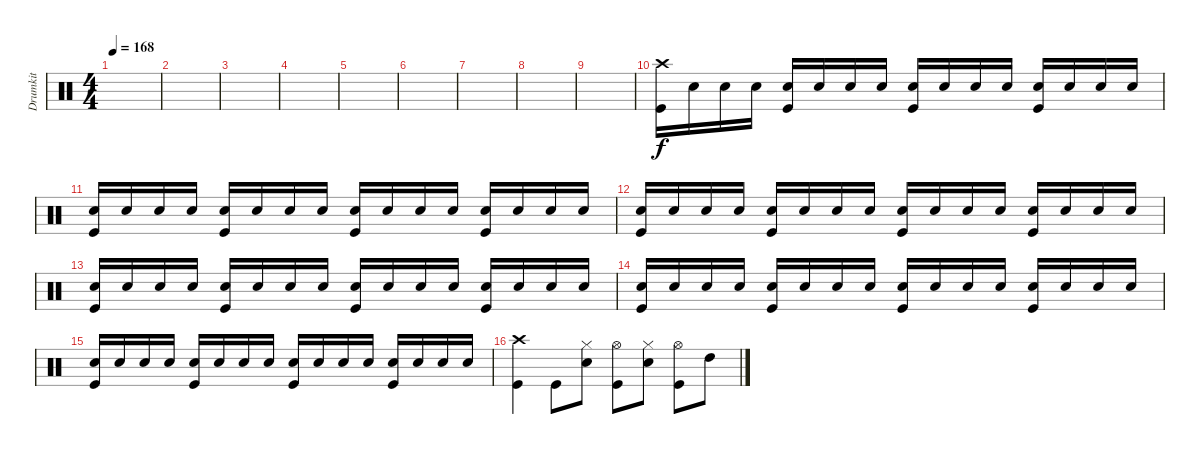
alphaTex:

\track ("Drumkit" "Drumkit") {instrument percussion}
\staff {score}
\articulation defaults
\ts (4 4)
\tempo 168
\clef neutral
\ks c
|
|
|
|
|
|
|
|
|
("Kick (hit)" "Crash high (hit)").16 "Snare (hit) 2".16 "Snare (hit) 2".16 "Snare (hit) 2".16 ("Snare (hit) 2" "Kick (hit)").16 "Snare (hit) 2".16 "Snare (hit) 2".16 "Snare (hit) 2".16 ("Snare (hit) 2" "Kick (hit)").16 "Snare (hit) 2".16 "Snare (hit) 2".16 "Snare (hit) 2".16 ("Snare (hit) 2" "Kick (hit)").16 "Snare (hit) 2".16 "Snare (hit) 2".16 "Snare (hit) 2".16 |
("Snare (hit) 2" "Kick (hit)").16 "Snare (hit) 2".16 "Snare (hit) 2".16 "Snare (hit) 2".16 ("Snare (hit) 2" "Kick (hit)").16 "Snare (hit) 2".16 "Snare (hit) 2".16 "Snare (hit) 2".16 ("Snare (hit) 2" "Kick (hit)").16 "Snare (hit) 2".16 "Snare (hit) 2".16 "Snare (hit) 2".16 ("Snare (hit) 2" "Kick (hit)").16 "Snare (hit) 2".16 "Snare (hit) 2".16 "Snare (hit) 2".16 |
("Snare (hit) 2" "Kick (hit)").16 "Snare (hit) 2".16 "Snare (hit) 2".16 "Snare (hit) 2".16 ("Snare (hit) 2" "Kick (hit)").16 "Snare (hit) 2".16 "Snare (hit) 2".16 "Snare (hit) 2".16 ("Snare (hit) 2" "Kick (hit)").16 "Snare (hit) 2".16 "Snare (hit) 2".16 "Snare (hit) 2".16 ("Snare (hit) 2" "Kick (hit)").16 "Snare (hit) 2".16 "Snare (hit) 2".16 "Snare (hit) 2".16 |
("Snare (hit) 2" "Kick (hit)").16 "Snare (hit) 2".16 "Snare (hit) 2".16 "Snare (hit) 2".16 ("Snare (hit) 2" "Kick (hit)").16 "Snare (hit) 2".16 "Snare (hit) 2".16 "Snare (hit) 2".16 ("Snare (hit) 2" "Kick (hit)").16 "Snare (hit) 2".16 "Snare (hit) 2".16 "Snare (hit) 2".16 ("Snare (hit) 2" "Kick (hit)").16 "Snare (hit) 2".16 "Snare (hit) 2".16 "Snare (hit) 2".16 |
("Snare (hit) 2" "Kick (hit)").16 "Snare (hit) 2".16 "Snare (hit) 2".16 "Snare (hit) 2".16 ("Snare (hit) 2" "Kick (hit)").16 "Snare (hit) 2".16 "Snare (hit) 2".16 "Snare (hit) 2".16 ("Snare (hit) 2" "Kick (hit)").16 "Snare (hit) 2".16 "Snare (hit) 2".16 "Snare (hit) 2".16 ("Snare (hit) 2" "Kick (hit)").16 "Snare (hit) 2".16 "Snare (hit) 2".16 "Snare (hit) 2".16 |
("Snare (hit) 2" "Kick (hit)").16 "Snare (hit) 2".16 "Snare (hit) 2".16 "Snare (hit) 2".16 ("Snare (hit) 2" "Kick (hit)").16 "Snare (hit) 2".16 "Snare (hit) 2".16 "Snare (hit) 2".16 ("Snare (hit) 2" "Kick (hit)").16 "Snare (hit) 2".16 "Snare (hit) 2".16 "Snare (hit) 2".16 ("Snare (hit) 2" "Kick (hit)").16 "Snare (hit) 2".16 "Snare (hit) 2".16 "Snare (hit) 2".16 |
("Kick (hit)" "Crash high (hit)").4 "Kick (hit)".8 ("Snare (hit) 2" "Hi-Hat (closed)").8 ("Kick (hit)" "Hi-Hat (open)").8 ("Hi-Hat (closed)" "Snare (hit) 2").8 ("Hi-Hat (open)" "Kick (hit)").8 "High Tom (hit)".8
